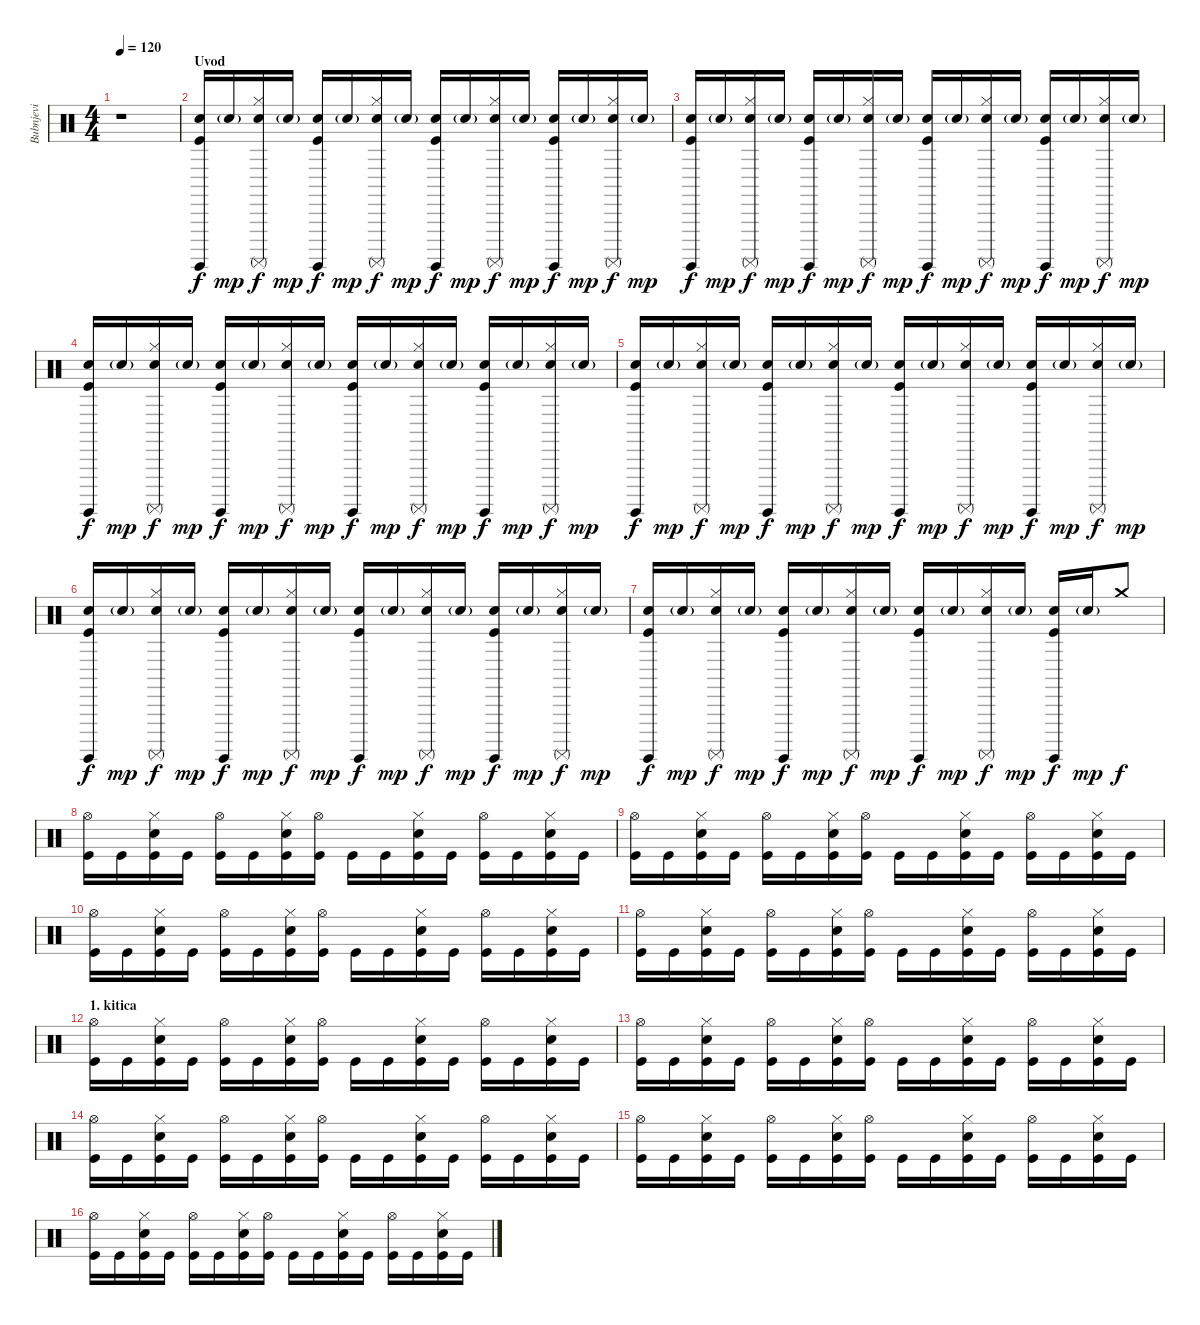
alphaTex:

\track ("Bubnjevi" "Bubnjevi") {instrument percussion}
\staff {score}
\articulation defaults
\ts (4 4)
\tempo 120
\clef neutral
\ks c
r.1{dy f} |
\section ("" "Uvod")
("Surdo (hit)" "Electric Snare (hit)" "Kick (hit)").16 "Electric Snare (hit)"{g}.16{dy mp} ("Surdo (mute)" "Electric Snare (hit)" "Hi-Hat (closed)").16{dy f} "Electric Snare (hit)"{g}.16{dy mp} ("Surdo (hit)" "Electric Snare (hit)" "Kick (hit)").16{dy f} "Electric Snare (hit)"{g}.16{dy mp} ("Surdo (mute)" "Electric Snare (hit)" "Hi-Hat (closed)").16{dy f} "Electric Snare (hit)"{g}.16{dy mp} ("Surdo (hit)" "Electric Snare (hit)" "Kick (hit)").16{dy f} "Electric Snare (hit)"{g}.16{dy mp} ("Surdo (mute)" "Electric Snare (hit)" "Hi-Hat (closed)").16{dy f} "Electric Snare (hit)"{g}.16{dy mp} ("Surdo (hit)" "Electric Snare (hit)" "Kick (hit)").16{dy f} "Electric Snare (hit)"{g}.16{dy mp} ("Surdo (mute)" "Electric Snare (hit)" "Hi-Hat (closed)").16{dy f} "Electric Snare (hit)"{g}.16{dy mp} |
("Surdo (hit)" "Electric Snare (hit)" "Kick (hit)").16{dy f} "Electric Snare (hit)"{g}.16{dy mp} ("Surdo (mute)" "Electric Snare (hit)" "Hi-Hat (closed)").16{dy f} "Electric Snare (hit)"{g}.16{dy mp} ("Surdo (hit)" "Electric Snare (hit)" "Kick (hit)").16{dy f} "Electric Snare (hit)"{g}.16{dy mp} ("Surdo (mute)" "Electric Snare (hit)" "Hi-Hat (closed)").16{dy f} "Electric Snare (hit)"{g}.16{dy mp} ("Surdo (hit)" "Electric Snare (hit)" "Kick (hit)").16{dy f} "Electric Snare (hit)"{g}.16{dy mp} ("Surdo (mute)" "Electric Snare (hit)" "Hi-Hat (closed)").16{dy f} "Electric Snare (hit)"{g}.16{dy mp} ("Surdo (hit)" "Electric Snare (hit)" "Kick (hit)").16{dy f} "Electric Snare (hit)"{g}.16{dy mp} ("Surdo (mute)" "Electric Snare (hit)" "Hi-Hat (closed)").16{dy f} "Electric Snare (hit)"{g}.16{dy mp} |
("Surdo (hit)" "Electric Snare (hit)" "Kick (hit)").16{dy f} "Electric Snare (hit)"{g}.16{dy mp} ("Surdo (mute)" "Electric Snare (hit)" "Hi-Hat (closed)").16{dy f} "Electric Snare (hit)"{g}.16{dy mp} ("Surdo (hit)" "Electric Snare (hit)" "Kick (hit)").16{dy f} "Electric Snare (hit)"{g}.16{dy mp} ("Surdo (mute)" "Electric Snare (hit)" "Hi-Hat (closed)").16{dy f} "Electric Snare (hit)"{g}.16{dy mp} ("Surdo (hit)" "Electric Snare (hit)" "Kick (hit)").16{dy f} "Electric Snare (hit)"{g}.16{dy mp} ("Surdo (mute)" "Electric Snare (hit)" "Hi-Hat (closed)").16{dy f} "Electric Snare (hit)"{g}.16{dy mp} ("Surdo (hit)" "Electric Snare (hit)" "Kick (hit)").16{dy f} "Electric Snare (hit)"{g}.16{dy mp} ("Surdo (mute)" "Electric Snare (hit)" "Hi-Hat (closed)").16{dy f} "Electric Snare (hit)"{g}.16{dy mp} |
("Surdo (hit)" "Electric Snare (hit)" "Kick (hit)").16{dy f} "Electric Snare (hit)"{g}.16{dy mp} ("Surdo (mute)" "Electric Snare (hit)" "Hi-Hat (closed)").16{dy f} "Electric Snare (hit)"{g}.16{dy mp} ("Surdo (hit)" "Electric Snare (hit)" "Kick (hit)").16{dy f} "Electric Snare (hit)"{g}.16{dy mp} ("Surdo (mute)" "Electric Snare (hit)" "Hi-Hat (closed)").16{dy f} "Electric Snare (hit)"{g}.16{dy mp} ("Surdo (hit)" "Electric Snare (hit)" "Kick (hit)").16{dy f} "Electric Snare (hit)"{g}.16{dy mp} ("Surdo (mute)" "Electric Snare (hit)" "Hi-Hat (closed)").16{dy f} "Electric Snare (hit)"{g}.16{dy mp} ("Surdo (hit)" "Electric Snare (hit)" "Kick (hit)").16{dy f} "Electric Snare (hit)"{g}.16{dy mp} ("Surdo (mute)" "Electric Snare (hit)" "Hi-Hat (closed)").16{dy f} "Electric Snare (hit)"{g}.16{dy mp} |
("Surdo (hit)" "Electric Snare (hit)" "Kick (hit)").16{dy f} "Electric Snare (hit)"{g}.16{dy mp} ("Surdo (mute)" "Electric Snare (hit)" "Hi-Hat (closed)").16{dy f} "Electric Snare (hit)"{g}.16{dy mp} ("Surdo (hit)" "Electric Snare (hit)" "Kick (hit)").16{dy f} "Electric Snare (hit)"{g}.16{dy mp} ("Surdo (mute)" "Electric Snare (hit)" "Hi-Hat (closed)").16{dy f} "Electric Snare (hit)"{g}.16{dy mp} ("Surdo (hit)" "Electric Snare (hit)" "Kick (hit)").16{dy f} "Electric Snare (hit)"{g}.16{dy mp} ("Surdo (mute)" "Electric Snare (hit)" "Hi-Hat (closed)").16{dy f} "Electric Snare (hit)"{g}.16{dy mp} ("Surdo (hit)" "Electric Snare (hit)" "Kick (hit)").16{dy f} "Electric Snare (hit)"{g}.16{dy mp} ("Surdo (mute)" "Electric Snare (hit)" "Hi-Hat (closed)").16{dy f} "Electric Snare (hit)"{g}.16{dy mp} |
("Surdo (hit)" "Electric Snare (hit)" "Kick (hit)").16{dy f} "Electric Snare (hit)"{g}.16{dy mp} ("Surdo (mute)" "Electric Snare (hit)" "Hi-Hat (closed)").16{dy f} "Electric Snare (hit)"{g}.16{dy mp} ("Surdo (hit)" "Electric Snare (hit)" "Kick (hit)").16{dy f} "Electric Snare (hit)"{g}.16{dy mp} ("Surdo (mute)" "Electric Snare (hit)" "Hi-Hat (closed)").16{dy f} "Electric Snare (hit)"{g}.16{dy mp} ("Surdo (hit)" "Electric Snare (hit)" "Kick (hit)").16{dy f} "Electric Snare (hit)"{g}.16{dy mp} ("Surdo (mute)" "Electric Snare (hit)" "Hi-Hat (closed)").16{dy f} "Electric Snare (hit)"{g}.16{dy mp} ("Surdo (hit)" "Electric Snare (hit)" "Kick (hit)").16{dy f} "Electric Snare (hit)"{g}.16{dy mp} "Crash medium (hit)".8{dy f} |
("Hi-Hat (open)" "Kick (hit)").16 "Kick (hit)".16 ("Electric Snare (hit)" "Hi-Hat (closed)" "Kick (hit)").16 "Kick (hit)".16 ("Hi-Hat (open)" "Kick (hit)").16 "Kick (hit)".16 ("Electric Snare (hit)" "Hi-Hat (closed)" "Kick (hit)").16 ("Hi-Hat (open)" "Kick (hit)").16 "Kick (hit)".16 "Kick (hit)".16 ("Electric Snare (hit)" "Hi-Hat (closed)" "Kick (hit)").16 "Kick (hit)".16 ("Hi-Hat (open)" "Kick (hit)").16 "Kick (hit)".16 ("Electric Snare (hit)" "Hi-Hat (closed)" "Kick (hit)").16 "Kick (hit)".16 |
("Hi-Hat (open)" "Kick (hit)").16 "Kick (hit)".16 ("Electric Snare (hit)" "Hi-Hat (closed)" "Kick (hit)").16 "Kick (hit)".16 ("Hi-Hat (open)" "Kick (hit)").16 "Kick (hit)".16 ("Electric Snare (hit)" "Hi-Hat (closed)" "Kick (hit)").16 ("Hi-Hat (open)" "Kick (hit)").16 "Kick (hit)".16 "Kick (hit)".16 ("Electric Snare (hit)" "Hi-Hat (closed)" "Kick (hit)").16 "Kick (hit)".16 ("Hi-Hat (open)" "Kick (hit)").16 "Kick (hit)".16 ("Electric Snare (hit)" "Hi-Hat (closed)" "Kick (hit)").16 "Kick (hit)".16 |
("Hi-Hat (open)" "Kick (hit)").16 "Kick (hit)".16 ("Electric Snare (hit)" "Hi-Hat (closed)" "Kick (hit)").16 "Kick (hit)".16 ("Hi-Hat (open)" "Kick (hit)").16 "Kick (hit)".16 ("Electric Snare (hit)" "Hi-Hat (closed)" "Kick (hit)").16 ("Hi-Hat (open)" "Kick (hit)").16 "Kick (hit)".16 "Kick (hit)".16 ("Electric Snare (hit)" "Hi-Hat (closed)" "Kick (hit)").16 "Kick (hit)".16 ("Hi-Hat (open)" "Kick (hit)").16 "Kick (hit)".16 ("Electric Snare (hit)" "Hi-Hat (closed)" "Kick (hit)").16 "Kick (hit)".16 |
("Hi-Hat (open)" "Kick (hit)").16 "Kick (hit)".16 ("Electric Snare (hit)" "Hi-Hat (closed)" "Kick (hit)").16 "Kick (hit)".16 ("Hi-Hat (open)" "Kick (hit)").16 "Kick (hit)".16 ("Electric Snare (hit)" "Hi-Hat (closed)" "Kick (hit)").16 ("Hi-Hat (open)" "Kick (hit)").16 "Kick (hit)".16 "Kick (hit)".16 ("Electric Snare (hit)" "Hi-Hat (closed)" "Kick (hit)").16 "Kick (hit)".16 ("Hi-Hat (open)" "Kick (hit)").16 "Kick (hit)".16 ("Electric Snare (hit)" "Hi-Hat (closed)" "Kick (hit)").16 "Kick (hit)".16 |
\section ("" "1. kitica")
("Hi-Hat (open)" "Kick (hit)").16 "Kick (hit)".16 ("Electric Snare (hit)" "Hi-Hat (closed)" "Kick (hit)").16 "Kick (hit)".16 ("Hi-Hat (open)" "Kick (hit)").16 "Kick (hit)".16 ("Electric Snare (hit)" "Hi-Hat (closed)" "Kick (hit)").16 ("Hi-Hat (open)" "Kick (hit)").16 "Kick (hit)".16 "Kick (hit)".16 ("Electric Snare (hit)" "Hi-Hat (closed)" "Kick (hit)").16 "Kick (hit)".16 ("Hi-Hat (open)" "Kick (hit)").16 "Kick (hit)".16 ("Electric Snare (hit)" "Hi-Hat (closed)" "Kick (hit)").16 "Kick (hit)".16 |
("Hi-Hat (open)" "Kick (hit)").16 "Kick (hit)".16 ("Electric Snare (hit)" "Hi-Hat (closed)" "Kick (hit)").16 "Kick (hit)".16 ("Hi-Hat (open)" "Kick (hit)").16 "Kick (hit)".16 ("Electric Snare (hit)" "Hi-Hat (closed)" "Kick (hit)").16 ("Hi-Hat (open)" "Kick (hit)").16 "Kick (hit)".16 "Kick (hit)".16 ("Electric Snare (hit)" "Hi-Hat (closed)" "Kick (hit)").16 "Kick (hit)".16 ("Hi-Hat (open)" "Kick (hit)").16 "Kick (hit)".16 ("Electric Snare (hit)" "Hi-Hat (closed)" "Kick (hit)").16 "Kick (hit)".16 |
("Hi-Hat (open)" "Kick (hit)").16 "Kick (hit)".16 ("Electric Snare (hit)" "Hi-Hat (closed)" "Kick (hit)").16 "Kick (hit)".16 ("Hi-Hat (open)" "Kick (hit)").16 "Kick (hit)".16 ("Electric Snare (hit)" "Hi-Hat (closed)" "Kick (hit)").16 ("Hi-Hat (open)" "Kick (hit)").16 "Kick (hit)".16 "Kick (hit)".16 ("Electric Snare (hit)" "Hi-Hat (closed)" "Kick (hit)").16 "Kick (hit)".16 ("Hi-Hat (open)" "Kick (hit)").16 "Kick (hit)".16 ("Electric Snare (hit)" "Hi-Hat (closed)" "Kick (hit)").16 "Kick (hit)".16 |
("Hi-Hat (open)" "Kick (hit)").16 "Kick (hit)".16 ("Electric Snare (hit)" "Hi-Hat (closed)" "Kick (hit)").16 "Kick (hit)".16 ("Hi-Hat (open)" "Kick (hit)").16 "Kick (hit)".16 ("Electric Snare (hit)" "Hi-Hat (closed)" "Kick (hit)").16 ("Hi-Hat (open)" "Kick (hit)").16 "Kick (hit)".16 "Kick (hit)".16 ("Electric Snare (hit)" "Hi-Hat (closed)" "Kick (hit)").16 "Kick (hit)".16 ("Hi-Hat (open)" "Kick (hit)").16 "Kick (hit)".16 ("Electric Snare (hit)" "Hi-Hat (closed)" "Kick (hit)").16 "Kick (hit)".16 |
("Hi-Hat (open)" "Kick (hit)").16 "Kick (hit)".16 ("Electric Snare (hit)" "Hi-Hat (closed)" "Kick (hit)").16 "Kick (hit)".16 ("Hi-Hat (open)" "Kick (hit)").16 "Kick (hit)".16 ("Electric Snare (hit)" "Hi-Hat (closed)" "Kick (hit)").16 ("Hi-Hat (open)" "Kick (hit)").16 "Kick (hit)".16 "Kick (hit)".16 ("Electric Snare (hit)" "Hi-Hat (closed)" "Kick (hit)").16 "Kick (hit)".16 ("Hi-Hat (open)" "Kick (hit)").16 "Kick (hit)".16 ("Electric Snare (hit)" "Hi-Hat (closed)" "Kick (hit)").16 "Kick (hit)".16
